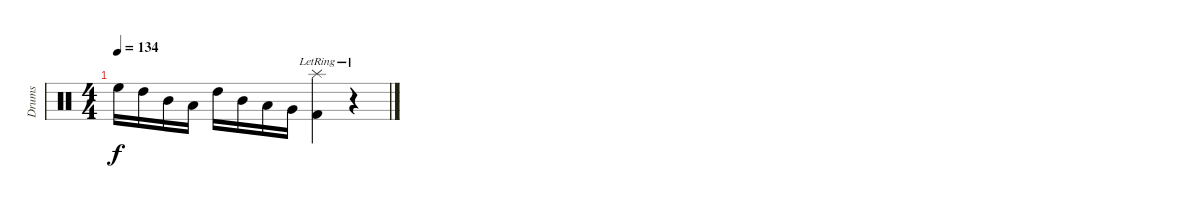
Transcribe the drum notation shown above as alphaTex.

\track ("Drums" "Drums") {instrument percussion}
\staff {score}
\articulation defaults
\ts (4 4)
\tempo 134
\clef neutral
\ks c "High Floor Tom (hit)".16{dy f} "High Tom (hit)".16 "Mid Tom (hit)".16 "Low Tom (hit)".16 "High Tom (hit)".16 "Mid Tom (hit)".16 "Low Tom (hit)".16 "Very Low Tom (hit)".16
("Splash (hit)"{lr} "Kick (hit) 2").4 r.4
